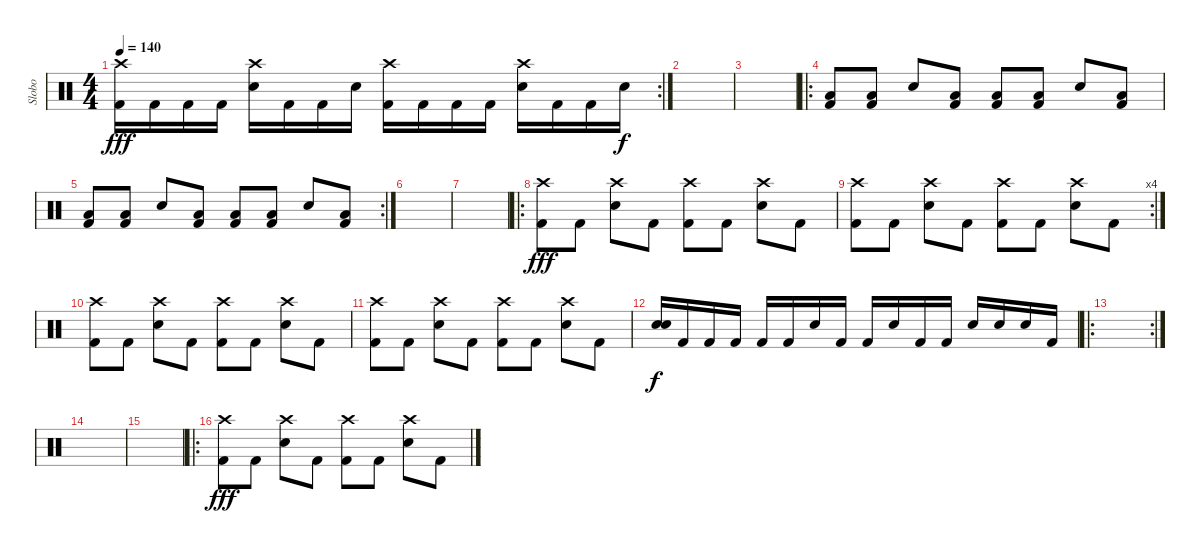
\track ("Slobo" "Slobo") {instrument percussion}
\staff {score}
\articulation defaults
\rc 2
\ts (4 4)
\tempo 140
\clef neutral
\ks c
("Crash high (hit)" "Kick (hit) 2").16{dy fff} "Kick (hit) 2".16 "Kick (hit) 2".16 "Kick (hit) 2".16 ("Crash high (hit)" "Snare (hit) 2").16 "Kick (hit) 2".16 "Kick (hit) 2".16 "Snare (hit) 2".16 ("Crash high (hit)" "Kick (hit) 2").16 "Kick (hit) 2".16 "Kick (hit) 2".16 "Kick (hit) 2".16 ("Crash high (hit)" "Snare (hit) 2").16 "Kick (hit) 2".16 "Kick (hit) 2".16 "Snare (hit) 2".16{dy f} |
|
|
\ro
("Kick (hit) 2" "Low Floor Tom (hit)").8 ("Kick (hit) 2" "Low Floor Tom (hit)").8 "Snare (hit) 2".8 ("Kick (hit) 2" "Low Floor Tom (hit)").8 ("Kick (hit) 2" "Low Floor Tom (hit)").8 ("Kick (hit) 2" "Low Floor Tom (hit)").8 "Snare (hit) 2".8 ("Kick (hit) 2" "Low Tom (hit)").8 |
\rc 2
("Kick (hit) 2" "Low Tom (hit)").8 ("Kick (hit) 2" "Low Tom (hit)").8 "Snare (hit) 2".8 ("Kick (hit) 2" "Low Floor Tom (hit)").8 ("Kick (hit) 2" "Low Floor Tom (hit)").8 ("Kick (hit) 2" "Low Floor Tom (hit)").8 "Snare (hit) 2".8 ("Kick (hit) 2" "Low Floor Tom (hit)").8 |
|
|
\ro
("Crash high (hit)" "Kick (hit) 2").8{dy fff} "Kick (hit) 2".8 ("Crash high (hit)" "Snare (hit) 2").8 "Kick (hit) 2".8 ("Crash high (hit)" "Kick (hit) 2").8 "Kick (hit) 2".8 ("Crash high (hit)" "Snare (hit) 2").8 "Kick (hit) 2".8 |
\rc 4
("Crash high (hit)" "Kick (hit) 2").8 "Kick (hit) 2".8 ("Crash high (hit)" "Snare (hit) 2").8 "Kick (hit) 2".8 ("Crash high (hit)" "Kick (hit) 2").8 "Kick (hit) 2".8 ("Crash high (hit)" "Snare (hit) 2").8 "Kick (hit) 2".8 |
("Crash high (hit)" "Kick (hit) 2").8 "Kick (hit) 2".8 ("Crash high (hit)" "Snare (hit) 2").8 "Kick (hit) 2".8 ("Crash high (hit)" "Kick (hit) 2").8 "Kick (hit) 2".8 ("Crash high (hit)" "Snare (hit) 2").8 "Kick (hit) 2".8 |
("Crash high (hit)" "Kick (hit) 2").8 "Kick (hit) 2".8 ("Crash high (hit)" "Snare (hit) 2").8 "Kick (hit) 2".8 ("Crash high (hit)" "Kick (hit) 2").8 "Kick (hit) 2".8 ("Crash high (hit)" "Snare (hit) 2").8 "Kick (hit) 2".8 |
("Snare (hit) 2" "Snare (hit) 2").16{dy f} "Kick (hit) 2".16 "Kick (hit) 2".16 "Kick (hit) 2".16 "Kick (hit) 2".16 "Kick (hit) 2".16 "Snare (hit) 2".16 "Kick (hit) 2".16 "Kick (hit) 2".16 "Snare (hit) 2".16 "Kick (hit) 2".16 "Kick (hit) 2".16 "Snare (hit) 2".16 "Snare (hit) 2".16 "Snare (hit) 2".16 "Kick (hit) 2".16 |
\ro
\rc 2
|
|
|
\ro
("Crash high (hit)" "Kick (hit) 2").8{dy fff} "Kick (hit) 2".8 ("Crash high (hit)" "Snare (hit) 2").8 "Kick (hit) 2".8 ("Crash high (hit)" "Kick (hit) 2").8 "Kick (hit) 2".8 ("Crash high (hit)" "Snare (hit) 2").8 "Kick (hit) 2".8
